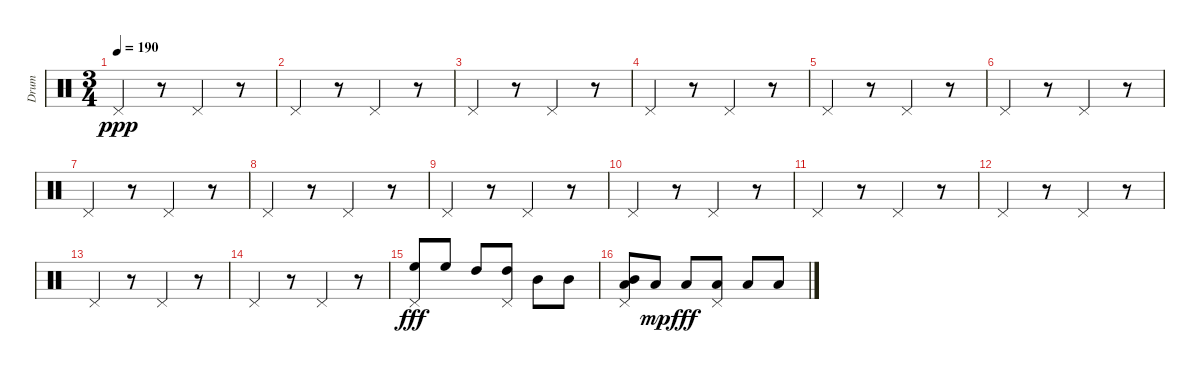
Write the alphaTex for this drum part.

\track ("Drum" "Drum") {instrument percussion}
\staff {score}
\articulation defaults
\ts (3 4)
\tempo 190
\clef neutral
\ks c "Pedal Hi-Hat (hit)".4{dy ppp}
r.8 "Pedal Hi-Hat (hit)".4 r.8 |
"Pedal Hi-Hat (hit)".4 r.8 "Pedal Hi-Hat (hit)".4 r.8 |
"Pedal Hi-Hat (hit)".4 r.8 "Pedal Hi-Hat (hit)".4 r.8 |
"Pedal Hi-Hat (hit)".4 r.8 "Pedal Hi-Hat (hit)".4 r.8 |
"Pedal Hi-Hat (hit)".4 r.8 "Pedal Hi-Hat (hit)".4 r.8 |
"Pedal Hi-Hat (hit)".4 r.8 "Pedal Hi-Hat (hit)".4 r.8 |
"Pedal Hi-Hat (hit)".4 r.8 "Pedal Hi-Hat (hit)".4 r.8 |
"Pedal Hi-Hat (hit)".4 r.8 "Pedal Hi-Hat (hit)".4 r.8 |
"Pedal Hi-Hat (hit)".4 r.8 "Pedal Hi-Hat (hit)".4 r.8 |
"Pedal Hi-Hat (hit)".4 r.8 "Pedal Hi-Hat (hit)".4 r.8 |
"Pedal Hi-Hat (hit)".4 r.8 "Pedal Hi-Hat (hit)".4 r.8 |
"Pedal Hi-Hat (hit)".4 r.8 "Pedal Hi-Hat (hit)".4 r.8 |
"Pedal Hi-Hat (hit)".4 r.8 "Pedal Hi-Hat (hit)".4 r.8 |
"Pedal Hi-Hat (hit)".4 r.8 "Pedal Hi-Hat (hit)".4 r.8 |
("Pedal Hi-Hat (hit)" "High Floor Tom (hit)").8{dy fff} "High Floor Tom (hit)".8 "High Tom (hit)".8 ("Pedal Hi-Hat (hit)" "High Tom (hit)").8 "Mid Tom (hit)".8 "Mid Tom (hit)".8 |
("Pedal Hi-Hat (hit)" "Mid Tom (hit)" "Low Tom (hit)").8 "Low Tom (hit)".8{dy mp} "Low Tom (hit)".8{dy fff} ("Pedal Hi-Hat (hit)" "Low Tom (hit)").8 "Low Tom (hit)".8 "Low Tom (hit)".8
